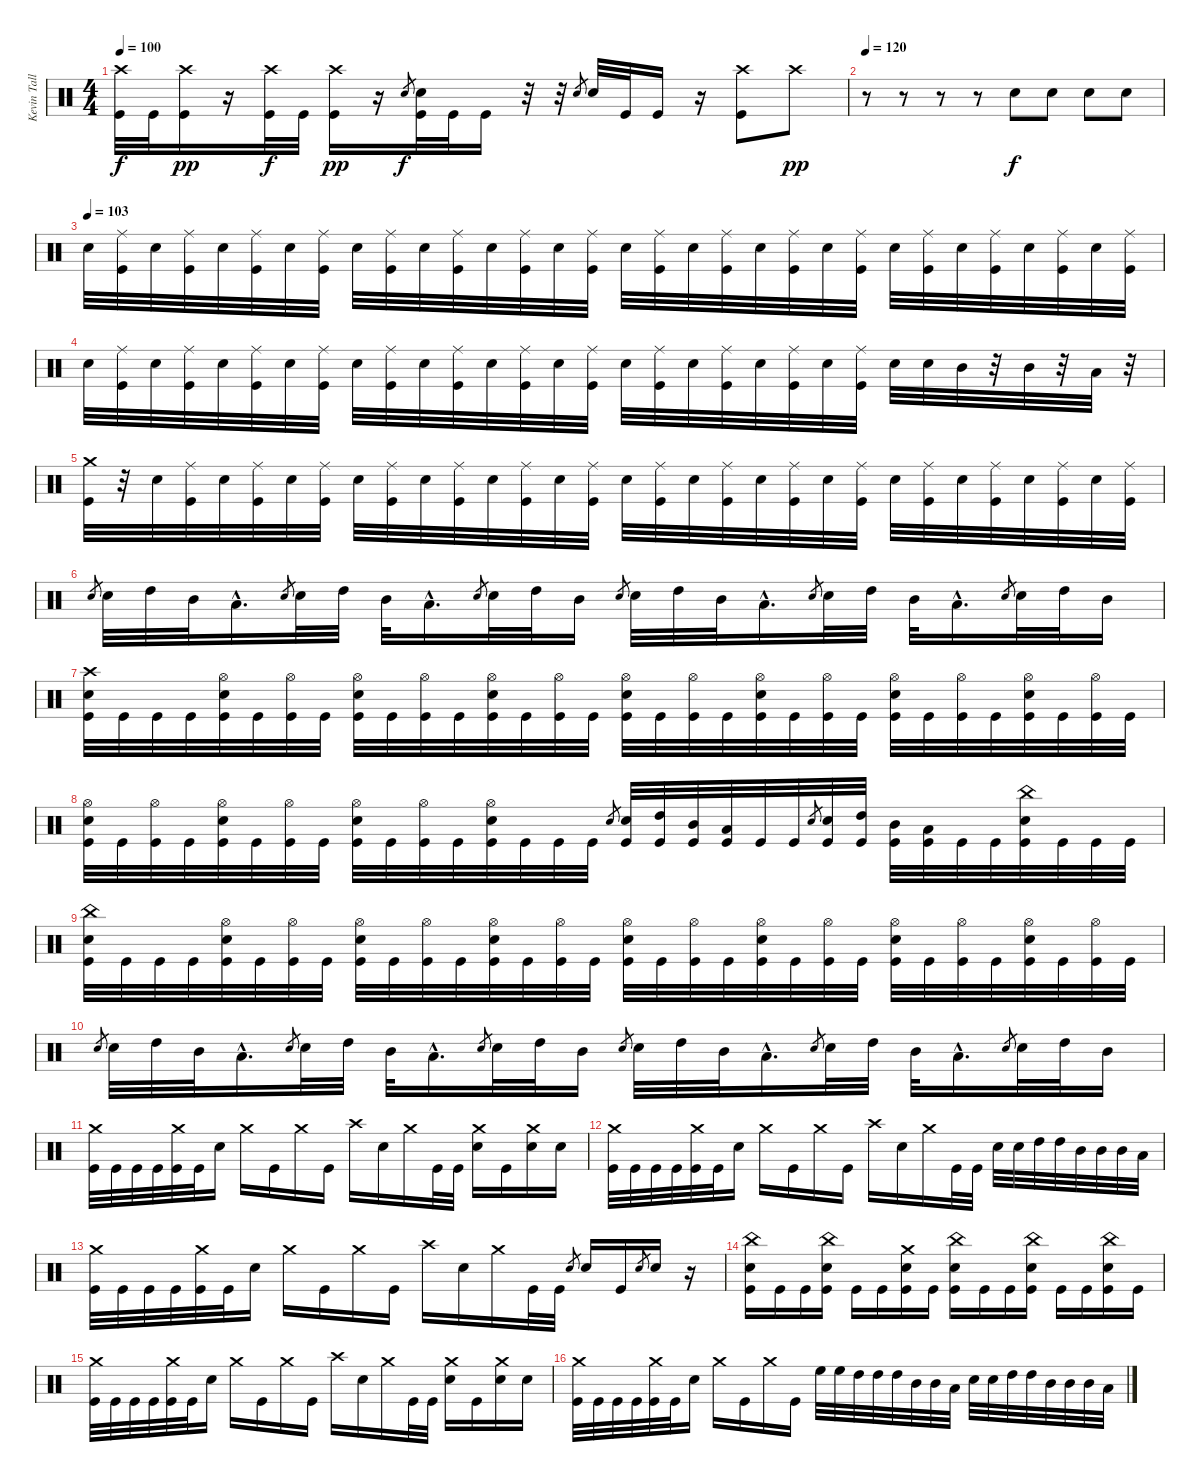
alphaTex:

\track ("Kevin Talley" "Kevin Tall") {instrument percussion}
\staff {score}
\articulation defaults
\ts (4 4)
\tempo 100
\clef neutral
\ks c
("Crash high (hit)" "Kick (hit)").32{dy f} "Kick (hit)".32 ("Crash high (hit)" "Kick (hit)").16{dy pp} r.16 ("Crash high (hit)" "Kick (hit)").32{dy f} "Kick (hit)".32 ("Crash high (hit)" "Kick (hit)").16{dy pp} r.16 "Electric Snare (hit)".8{gr dy f} ("Electric Snare (hit)" "Kick (hit)").32 "Kick (hit)".32 "Kick (hit)".16 r.32 r.32 "Electric Snare (hit)".8{gr} "Electric Snare (hit)".32 "Kick (hit)".32 "Kick (hit)".16 r.16 ("Crash high (hit)" "Kick (hit)").8 "Crash high (hit)".8{dy pp} |
\tempo 120
r.8 r.8 r.8 r.8 "Electric Snare (hit)".8{dy f} "Electric Snare (hit)".8 "Electric Snare (hit)".8 "Electric Snare (hit)".8 |
\tempo (103)
"Electric Snare (hit)".32 ("Ride (middle)" "Kick (hit)").32 "Electric Snare (hit)".32 ("Ride (middle)" "Kick (hit)").32 "Electric Snare (hit)".32 ("Ride (middle)" "Kick (hit)").32 "Electric Snare (hit)".32 ("Ride (middle)" "Kick (hit)").32 "Electric Snare (hit)".32 ("Ride (middle)" "Kick (hit)").32 "Electric Snare (hit)".32 ("Ride (middle)" "Kick (hit)").32 "Electric Snare (hit)".32 ("Ride (middle)" "Kick (hit)").32 "Electric Snare (hit)".32 ("Ride (middle)" "Kick (hit)").32 "Electric Snare (hit)".32 ("Ride (middle)" "Kick (hit)").32 "Electric Snare (hit)".32 ("Ride (middle)" "Kick (hit)").32 "Electric Snare (hit)".32 ("Ride (middle)" "Kick (hit)").32 "Electric Snare (hit)".32 ("Ride (middle)" "Kick (hit)").32 "Electric Snare (hit)".32 ("Ride (middle)" "Kick (hit)").32 "Electric Snare (hit)".32 ("Ride (middle)" "Kick (hit)").32 "Electric Snare (hit)".32 ("Ride (middle)" "Kick (hit)").32 "Electric Snare (hit)".32 ("Ride (middle)" "Kick (hit)").32 |
"Electric Snare (hit)".32 ("Ride (middle)" "Kick (hit)").32 "Electric Snare (hit)".32 ("Ride (middle)" "Kick (hit)").32 "Electric Snare (hit)".32 ("Ride (middle)" "Kick (hit)").32 "Electric Snare (hit)".32 ("Ride (middle)" "Kick (hit)").32 "Electric Snare (hit)".32 ("Ride (middle)" "Kick (hit)").32 "Electric Snare (hit)".32 ("Ride (middle)" "Kick (hit)").32 "Electric Snare (hit)".32 ("Ride (middle)" "Kick (hit)").32 "Electric Snare (hit)".32 ("Ride (middle)" "Kick (hit)").32 "Electric Snare (hit)".32 ("Ride (middle)" "Kick (hit)").32 "Electric Snare (hit)".32 ("Ride (middle)" "Kick (hit)").32 "Electric Snare (hit)".32 ("Ride (middle)" "Kick (hit)").32 "Electric Snare (hit)".32 ("Ride (middle)" "Kick (hit)").32 "Electric Snare (hit)".32 "Electric Snare (hit)".32 "Mid Tom (hit)".32 r.32 "Mid Tom (hit)".32 r.32 "Low Tom (hit)".32 r.32 |
("Crash medium (hit)" "Kick (hit)").32 r.32 "Electric Snare (hit)".32 ("Ride (middle)" "Kick (hit)").32 "Electric Snare (hit)".32 ("Ride (middle)" "Kick (hit)").32 "Electric Snare (hit)".32 ("Ride (middle)" "Kick (hit)").32 "Electric Snare (hit)".32 ("Ride (middle)" "Kick (hit)").32 "Electric Snare (hit)".32 ("Ride (middle)" "Kick (hit)").32 "Electric Snare (hit)".32 ("Ride (middle)" "Kick (hit)").32 "Electric Snare (hit)".32 ("Ride (middle)" "Kick (hit)").32 "Electric Snare (hit)".32 ("Ride (middle)" "Kick (hit)").32 "Electric Snare (hit)".32 ("Ride (middle)" "Kick (hit)").32 "Electric Snare (hit)".32 ("Ride (middle)" "Kick (hit)").32 "Electric Snare (hit)".32 ("Ride (middle)" "Kick (hit)").32 "Electric Snare (hit)".32 ("Ride (middle)" "Kick (hit)").32 "Electric Snare (hit)".32 ("Ride (middle)" "Kick (hit)").32 "Electric Snare (hit)".32 ("Ride (middle)" "Kick (hit)").32 "Electric Snare (hit)".32 ("Ride (middle)" "Kick (hit)").32 |
"Electric Snare (hit)".8{gr} "Electric Snare (hit)".32 "High Tom (hit)".32 "Mid Tom (hit)".32 "Low Tom (hit)"{hac}.16{d} "Electric Snare (hit)".8{gr} "Electric Snare (hit)".32 "High Tom (hit)".32 "Mid Tom (hit)".32 "Low Tom (hit)"{hac}.16{d} "Electric Snare (hit)".8{gr} "Electric Snare (hit)".32 "High Tom (hit)".32 "Mid Tom (hit)".16 "Electric Snare (hit)".8{gr} "Electric Snare (hit)".32 "High Tom (hit)".32 "Mid Tom (hit)".32 "Low Tom (hit)"{hac}.16{d} "Electric Snare (hit)".8{gr} "Electric Snare (hit)".32 "High Tom (hit)".32 "Mid Tom (hit)".32 "Low Tom (hit)"{hac}.16{d} "Electric Snare (hit)".8{gr} "Electric Snare (hit)".32 "High Tom (hit)".32 "Mid Tom (hit)".16 |
("Crash high (hit)" "Electric Snare (hit)" "Kick (hit)").32 "Kick (hit)".32 "Kick (hit)".32 "Kick (hit)".32 ("Hi-Hat (open)" "Electric Snare (hit)" "Kick (hit)").32 "Kick (hit)".32 ("Hi-Hat (open)" "Kick (hit)").32 "Kick (hit)".32 ("Hi-Hat (open)" "Electric Snare (hit)" "Kick (hit)").32 "Kick (hit)".32 ("Hi-Hat (open)" "Kick (hit)").32 "Kick (hit)".32 ("Hi-Hat (open)" "Electric Snare (hit)" "Kick (hit)").32 "Kick (hit)".32 ("Hi-Hat (open)" "Kick (hit)").32 "Kick (hit)".32 ("Hi-Hat (open)" "Electric Snare (hit)" "Kick (hit)").32 "Kick (hit)".32 ("Hi-Hat (open)" "Kick (hit)").32 "Kick (hit)".32 ("Hi-Hat (open)" "Electric Snare (hit)" "Kick (hit)").32 "Kick (hit)".32 ("Hi-Hat (open)" "Kick (hit)").32 "Kick (hit)".32 ("Hi-Hat (open)" "Electric Snare (hit)" "Kick (hit)").32 "Kick (hit)".32 ("Hi-Hat (open)" "Kick (hit)").32 "Kick (hit)".32 ("Hi-Hat (open)" "Electric Snare (hit)" "Kick (hit)").32 "Kick (hit)".32 ("Hi-Hat (open)" "Kick (hit)").32 "Kick (hit)".32 |
("Hi-Hat (open)" "Electric Snare (hit)" "Kick (hit)").32 "Kick (hit)".32 ("Hi-Hat (open)" "Kick (hit)").32 "Kick (hit)".32 ("Hi-Hat (open)" "Electric Snare (hit)" "Kick (hit)").32 "Kick (hit)".32 ("Hi-Hat (open)" "Kick (hit)").32 "Kick (hit)".32 ("Hi-Hat (open)" "Electric Snare (hit)" "Kick (hit)").32 "Kick (hit)".32 ("Hi-Hat (open)" "Kick (hit)").32 "Kick (hit)".32 ("Hi-Hat (open)" "Electric Snare (hit)" "Kick (hit)").32 "Kick (hit)".32 "Kick (hit)".32 "Kick (hit)".32 "Electric Snare (hit)".8{gr} ("Electric Snare (hit)" "Kick (hit)").32 ("High Tom (hit)" "Kick (hit)").32 ("Mid Tom (hit)" "Kick (hit)").32 ("Low Tom (hit)" "Kick (hit)").32 "Kick (hit)".32 "Kick (hit)".32 "Electric Snare (hit)".8{gr} ("Electric Snare (hit)" "Kick (hit)").32 ("High Tom (hit)" "Kick (hit)").32 ("Mid Tom (hit)" "Kick (hit)").32 ("Low Tom (hit)" "Kick (hit)").32 "Kick (hit)".32 "Kick (hit)".32 ("China (hit)" "Electric Snare (hit)" "Kick (hit)").32 "Kick (hit)".32 "Kick (hit)".32 "Kick (hit)".32 |
("China (hit)" "Electric Snare (hit)" "Kick (hit)").32 "Kick (hit)".32 "Kick (hit)".32 "Kick (hit)".32 ("Hi-Hat (open)" "Electric Snare (hit)" "Kick (hit)").32 "Kick (hit)".32 ("Hi-Hat (open)" "Kick (hit)").32 "Kick (hit)".32 ("Hi-Hat (open)" "Electric Snare (hit)" "Kick (hit)").32 "Kick (hit)".32 ("Hi-Hat (open)" "Kick (hit)").32 "Kick (hit)".32 ("Hi-Hat (open)" "Electric Snare (hit)" "Kick (hit)").32 "Kick (hit)".32 ("Hi-Hat (open)" "Kick (hit)").32 "Kick (hit)".32 ("Hi-Hat (open)" "Electric Snare (hit)" "Kick (hit)").32 "Kick (hit)".32 ("Hi-Hat (open)" "Kick (hit)").32 "Kick (hit)".32 ("Hi-Hat (open)" "Electric Snare (hit)" "Kick (hit)").32 "Kick (hit)".32 ("Hi-Hat (open)" "Kick (hit)").32 "Kick (hit)".32 ("Hi-Hat (open)" "Electric Snare (hit)" "Kick (hit)").32 "Kick (hit)".32 ("Hi-Hat (open)" "Kick (hit)").32 "Kick (hit)".32 ("Hi-Hat (open)" "Electric Snare (hit)" "Kick (hit)").32 "Kick (hit)".32 ("Hi-Hat (open)" "Kick (hit)").32 "Kick (hit)".32 |
"Electric Snare (hit)".8{gr} "Electric Snare (hit)".32 "High Tom (hit)".32 "Mid Tom (hit)".32 "Low Tom (hit)"{hac}.16{d} "Electric Snare (hit)".8{gr} "Electric Snare (hit)".32 "High Tom (hit)".32 "Mid Tom (hit)".32 "Low Tom (hit)"{hac}.16{d} "Electric Snare (hit)".8{gr} "Electric Snare (hit)".32 "High Tom (hit)".32 "Mid Tom (hit)".16 "Electric Snare (hit)".8{gr} "Electric Snare (hit)".32 "High Tom (hit)".32 "Mid Tom (hit)".32 "Low Tom (hit)"{hac}.16{d} "Electric Snare (hit)".8{gr} "Electric Snare (hit)".32 "High Tom (hit)".32 "Mid Tom (hit)".32 "Low Tom (hit)"{hac}.16{d} "Electric Snare (hit)".8{gr} "Electric Snare (hit)".32 "High Tom (hit)".32 "Mid Tom (hit)".16 |
("Crash medium (hit)" "Kick (hit)").32 "Kick (hit)".32 "Kick (hit)".32 "Kick (hit)".32 ("Crash medium (hit)" "Kick (hit)").32 "Kick (hit)".32 "Electric Snare (hit)".16 "Crash medium (hit)".16 "Kick (hit)".16 "Crash medium (hit)".16 "Kick (hit)".16 "Crash high (hit)".16 "Electric Snare (hit)".16 "Crash medium (hit)".16 "Kick (hit)".32 "Kick (hit)".32 ("Crash medium (hit)" "Electric Snare (hit)").16 "Kick (hit)".16 ("Crash medium (hit)" "Electric Snare (hit)").16 "Electric Snare (hit)".16 |
("Crash medium (hit)" "Kick (hit)").32 "Kick (hit)".32 "Kick (hit)".32 "Kick (hit)".32 ("Crash medium (hit)" "Kick (hit)").32 "Kick (hit)".32 "Electric Snare (hit)".16 "Crash medium (hit)".16 "Kick (hit)".16 "Crash medium (hit)".16 "Kick (hit)".16 "Crash high (hit)".16 "Electric Snare (hit)".16 "Crash medium (hit)".16 "Kick (hit)".32 "Kick (hit)".32 "Electric Snare (hit)".32 "Electric Snare (hit)".32 "High Tom (hit)".32 "High Tom (hit)".32 "Mid Tom (hit)".32 "Mid Tom (hit)".32 "Mid Tom (hit)".32 "Low Tom (hit)".32 |
("Crash medium (hit)" "Kick (hit)").32 "Kick (hit)".32 "Kick (hit)".32 "Kick (hit)".32 ("Crash medium (hit)" "Kick (hit)").32 "Kick (hit)".32 "Electric Snare (hit)".16 "Crash medium (hit)".16 "Kick (hit)".16 "Crash medium (hit)".16 "Kick (hit)".16 "Crash high (hit)".16 "Electric Snare (hit)".16 "Crash medium (hit)".16 "Kick (hit)".32 "Kick (hit)".32 "Electric Snare (hit)".8{gr} "Electric Snare (hit)".16 "Kick (hit)".16 "Electric Snare (hit)".8{gr} "Electric Snare (hit)".16 r.16 |
("China (hit)" "Electric Snare (hit)" "Kick (hit)").16 "Kick (hit)".16 "Kick (hit)".16 ("China (hit)" "Electric Snare (hit)" "Kick (hit)").16 "Kick (hit)".16 "Kick (hit)".16 ("Crash medium (hit)" "Electric Snare (hit)" "Kick (hit)").16 "Kick (hit)".16 ("China (hit)" "Electric Snare (hit)" "Kick (hit)").16 "Kick (hit)".16 "Kick (hit)".16 ("China (hit)" "Electric Snare (hit)" "Kick (hit)").16 "Kick (hit)".16 "Kick (hit)".16 ("China (hit)" "Electric Snare (hit)" "Kick (hit)").16 "Kick (hit)".16 |
("Crash medium (hit)" "Kick (hit)").32 "Kick (hit)".32 "Kick (hit)".32 "Kick (hit)".32 ("Crash medium (hit)" "Kick (hit)").32 "Kick (hit)".32 "Electric Snare (hit)".16 "Crash medium (hit)".16 "Kick (hit)".16 "Crash medium (hit)".16 "Kick (hit)".16 "Crash high (hit)".16 "Electric Snare (hit)".16 "Crash medium (hit)".16 "Kick (hit)".32 "Kick (hit)".32 ("Crash medium (hit)" "Electric Snare (hit)").16 "Kick (hit)".16 ("Crash medium (hit)" "Electric Snare (hit)").16 "Electric Snare (hit)".16 |
("Crash medium (hit)" "Kick (hit)").32 "Kick (hit)".32 "Kick (hit)".32 "Kick (hit)".32 ("Crash medium (hit)" "Kick (hit)").32 "Kick (hit)".32 "Electric Snare (hit)".16 "Crash medium (hit)".16 "Kick (hit)".16 "Crash medium (hit)".16 "Kick (hit)".16 "High Floor Tom (hit)".32 "High Floor Tom (hit)".32 "High Tom (hit)".32 "High Tom (hit)".32 "High Tom (hit)".32 "Mid Tom (hit)".32 "Mid Tom (hit)".32 "Low Tom (hit)".32 "Electric Snare (hit)".32 "Electric Snare (hit)".32 "High Tom (hit)".32 "High Tom (hit)".32 "Mid Tom (hit)".32 "Mid Tom (hit)".32 "Mid Tom (hit)".32 "Low Tom (hit)".32
